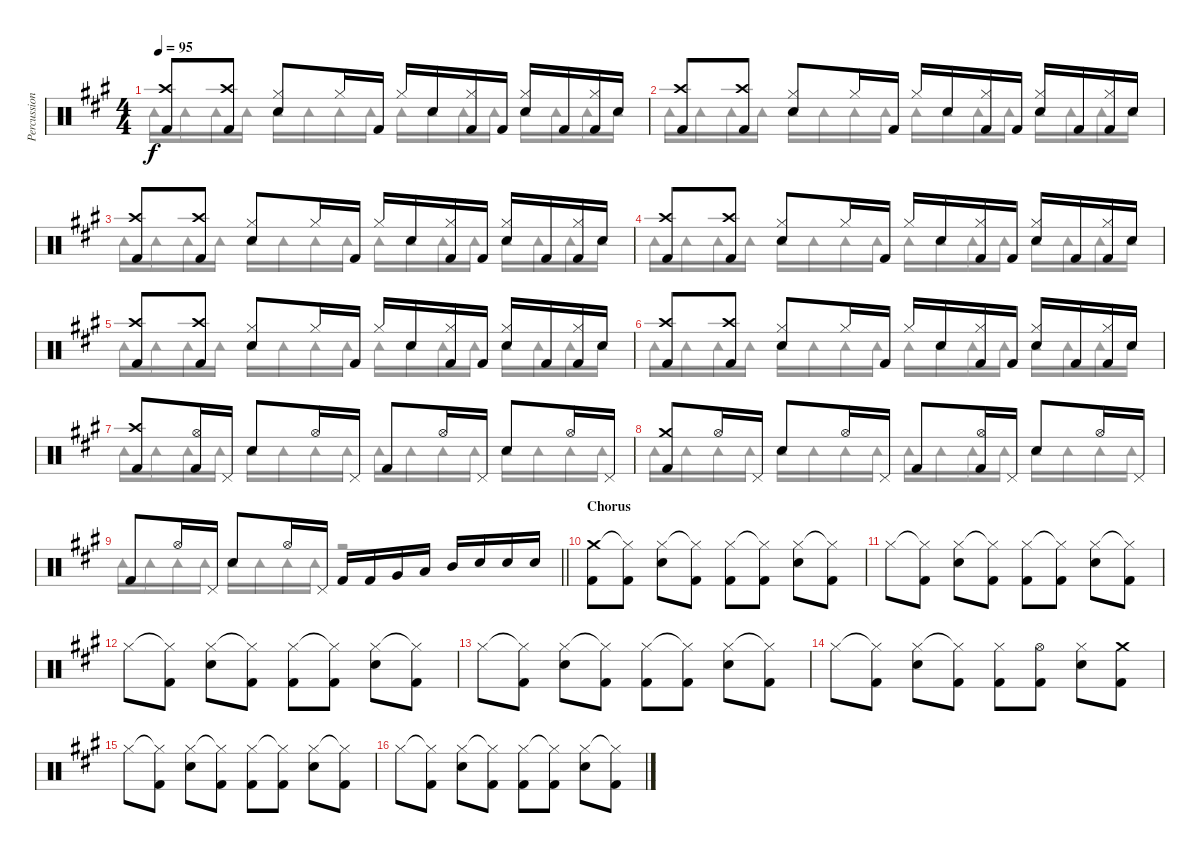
\track ("Percussion" "Percussion") {instrument percussion}
\staff {score}
\articulation defaults
\voice
\ts (4 4)
\tempo 95
\clef neutral
\ks a
("Crash high (hit)" "Kick (hit) 2").8{dy f} ("Crash high (hit)" "Kick (hit) 2").8 ("Hi-Hat (closed)" "Electric Snare (hit)").8 "Hi-Hat (closed)".16 "Kick (hit) 2".16 "Hi-Hat (closed)".16 "Electric Snare (hit)".16 ("Hi-Hat (closed)" "Kick (hit) 2").16 "Kick (hit) 2".16 ("Hi-Hat (closed)" "Electric Snare (hit)").16 "Kick (hit) 2".16 ("Hi-Hat (closed)" "Kick (hit) 2").16 "Electric Snare (hit)".16 |
("Crash high (hit)" "Kick (hit) 2").8 ("Crash high (hit)" "Kick (hit) 2").8 ("Hi-Hat (closed)" "Electric Snare (hit)").8 "Hi-Hat (closed)".16 "Kick (hit) 2".16 "Hi-Hat (closed)".16 "Electric Snare (hit)".16 ("Hi-Hat (closed)" "Kick (hit) 2").16 "Kick (hit) 2".16 ("Hi-Hat (closed)" "Electric Snare (hit)").16 "Kick (hit) 2".16 ("Hi-Hat (closed)" "Kick (hit) 2").16 "Electric Snare (hit)".16 |
("Crash high (hit)" "Kick (hit) 2").8 ("Crash high (hit)" "Kick (hit) 2").8 ("Hi-Hat (closed)" "Electric Snare (hit)").8 "Hi-Hat (closed)".16 "Kick (hit) 2".16 "Hi-Hat (closed)".16 "Electric Snare (hit)".16 ("Hi-Hat (closed)" "Kick (hit) 2").16 "Kick (hit) 2".16 ("Hi-Hat (closed)" "Electric Snare (hit)").16 "Kick (hit) 2".16 ("Hi-Hat (closed)" "Kick (hit) 2").16 "Electric Snare (hit)".16 |
("Crash high (hit)" "Kick (hit) 2").8 ("Crash high (hit)" "Kick (hit) 2").8 ("Hi-Hat (closed)" "Electric Snare (hit)").8 "Hi-Hat (closed)".16 "Kick (hit) 2".16 "Hi-Hat (closed)".16 "Electric Snare (hit)".16 ("Hi-Hat (closed)" "Kick (hit) 2").16 "Kick (hit) 2".16 ("Hi-Hat (closed)" "Electric Snare (hit)").16 "Kick (hit) 2".16 ("Hi-Hat (closed)" "Kick (hit) 2").16 "Electric Snare (hit)".16 |
("Crash high (hit)" "Kick (hit) 2").8 ("Crash high (hit)" "Kick (hit) 2").8 ("Hi-Hat (closed)" "Electric Snare (hit)").8 "Hi-Hat (closed)".16 "Kick (hit) 2".16 "Hi-Hat (closed)".16 "Electric Snare (hit)".16 ("Hi-Hat (closed)" "Kick (hit) 2").16 "Kick (hit) 2".16 ("Hi-Hat (closed)" "Electric Snare (hit)").16 "Kick (hit) 2".16 ("Hi-Hat (closed)" "Kick (hit) 2").16 "Electric Snare (hit)".16 |
("Crash high (hit)" "Kick (hit) 2").8 ("Crash high (hit)" "Kick (hit) 2").8 ("Hi-Hat (closed)" "Electric Snare (hit)").8 "Hi-Hat (closed)".16 "Kick (hit) 2".16 "Hi-Hat (closed)".16 "Electric Snare (hit)".16 ("Hi-Hat (closed)" "Kick (hit) 2").16 "Kick (hit) 2".16 ("Hi-Hat (closed)" "Electric Snare (hit)").16 "Kick (hit) 2".16 ("Hi-Hat (closed)" "Kick (hit) 2").16 "Electric Snare (hit)".16 |
("Crash high (hit)" "Kick (hit) 2").8 ("Hi-Hat (open)" "Kick (hit) 2").16 "Pedal Hi-Hat (hit)".16 "Electric Snare (hit)".8 "Hi-Hat (open)".16 "Pedal Hi-Hat (hit)".16 "Kick (hit) 2".8 "Hi-Hat (open)".16 "Pedal Hi-Hat (hit)".16 "Electric Snare (hit)".8 "Hi-Hat (open)".16 "Pedal Hi-Hat (hit)".16 |
("Crash medium (hit)" "Kick (hit) 2").8 "Hi-Hat (open)".16 "Pedal Hi-Hat (hit)".16 "Electric Snare (hit)".8 "Hi-Hat (open)".16 "Pedal Hi-Hat (hit)".16 "Kick (hit) 2".8 ("Hi-Hat (open)" "Kick (hit) 2").16 "Pedal Hi-Hat (hit)".16 "Electric Snare (hit)".8 "Hi-Hat (open)".16 "Pedal Hi-Hat (hit)".16 |
\barLineRight lightlight "Kick (hit) 2".8 "Hi-Hat (open)".16 "Pedal Hi-Hat (hit)".16 "Electric Snare (hit)".8 "Hi-Hat (open)".16 "Pedal Hi-Hat (hit)".16 "Kick (hit) 2".16 "Kick (hit) 2".16 "Very Low Tom (hit)".16 "Low Tom (hit)".16 "Mid Tom (hit)".16 "Electric Snare (hit)".16 "Electric Snare (hit)".16 "Electric Snare (hit)".16
|
\section ("" "Chorus")
("Crash medium (hit)" "Kick (hit) 2").8 ("Hi-Hat (closed)"{t} "Kick (hit) 2").8 ("Hi-Hat (closed)" "Electric Snare (hit)").8 ("Hi-Hat (closed)"{t} "Kick (hit) 2").8 ("Hi-Hat (closed)" "Kick (hit) 2").8 ("Hi-Hat (closed)"{t} "Kick (hit) 2").8 ("Hi-Hat (closed)" "Electric Snare (hit)").8 ("Hi-Hat (closed)"{t} "Kick (hit) 2").8 |
"Hi-Hat (closed)".8 ("Hi-Hat (closed)"{t} "Kick (hit) 2").8 ("Hi-Hat (closed)" "Electric Snare (hit)").8 ("Hi-Hat (closed)"{t} "Kick (hit) 2").8 ("Hi-Hat (closed)" "Kick (hit) 2").8 ("Hi-Hat (closed)"{t} "Kick (hit) 2").8 ("Hi-Hat (closed)" "Electric Snare (hit)").8 ("Hi-Hat (closed)"{t} "Kick (hit) 2").8 |
"Hi-Hat (closed)".8 ("Hi-Hat (closed)"{t} "Kick (hit) 2").8 ("Hi-Hat (closed)" "Electric Snare (hit)").8 ("Hi-Hat (closed)"{t} "Kick (hit) 2").8 ("Hi-Hat (closed)" "Kick (hit) 2").8 ("Hi-Hat (closed)"{t} "Kick (hit) 2").8 ("Hi-Hat (closed)" "Electric Snare (hit)").8 ("Hi-Hat (closed)"{t} "Kick (hit) 2").8 |
"Hi-Hat (closed)".8 ("Hi-Hat (closed)"{t} "Kick (hit) 2").8 ("Hi-Hat (closed)" "Electric Snare (hit)").8 ("Hi-Hat (closed)"{t} "Kick (hit) 2").8 ("Hi-Hat (closed)" "Kick (hit) 2").8 ("Hi-Hat (closed)"{t} "Kick (hit) 2").8 ("Hi-Hat (closed)" "Electric Snare (hit)").8 ("Hi-Hat (closed)"{t} "Kick (hit) 2").8 |
"Hi-Hat (closed)".8 ("Hi-Hat (closed)"{t} "Kick (hit) 2").8 ("Hi-Hat (closed)" "Electric Snare (hit)").8 ("Hi-Hat (closed)"{t} "Kick (hit) 2").8 ("Hi-Hat (closed)" "Kick (hit) 2").8 ("Hi-Hat (open)" "Kick (hit) 2").8 ("Hi-Hat (closed)" "Electric Snare (hit)").8 ("Crash medium (hit)" "Kick (hit) 2").8 |
"Hi-Hat (closed)".8 ("Hi-Hat (closed)"{t} "Kick (hit) 2").8 ("Hi-Hat (closed)" "Electric Snare (hit)").8 ("Hi-Hat (closed)"{t} "Kick (hit) 2").8 ("Hi-Hat (closed)" "Kick (hit) 2").8 ("Hi-Hat (closed)"{t} "Kick (hit) 2").8 ("Hi-Hat (closed)" "Electric Snare (hit)").8 ("Hi-Hat (closed)"{t} "Kick (hit) 2").8 |
"Hi-Hat (closed)".8 ("Hi-Hat (closed)"{t} "Kick (hit) 2").8 ("Hi-Hat (closed)" "Electric Snare (hit)").8 ("Hi-Hat (closed)"{t} "Kick (hit) 2").8 ("Hi-Hat (closed)" "Kick (hit) 2").8 ("Hi-Hat (closed)"{t} "Kick (hit) 2").8 ("Hi-Hat (closed)" "Electric Snare (hit)").8 ("Hi-Hat (closed)"{t} "Kick (hit) 2").8
\voice
\clef neutral
\ottava regular
\simile none
\ks a "Tambourine (hit)".16{dy f} "Tambourine (hit)".16 "Tambourine (hit)".16 "Tambourine (hit)".16 "Tambourine (hit)".16 "Tambourine (hit)".16 "Tambourine (hit)".16 "Tambourine (hit)".16 "Tambourine (hit)".16 "Tambourine (hit)".16 "Tambourine (hit)".16 "Tambourine (hit)".16 "Tambourine (hit)".16 "Tambourine (hit)".16 "Tambourine (hit)".16 "Tambourine (hit)".16
|
"Tambourine (hit)".16 "Tambourine (hit)".16 "Tambourine (hit)".16 "Tambourine (hit)".16 "Tambourine (hit)".16 "Tambourine (hit)".16 "Tambourine (hit)".16 "Tambourine (hit)".16 "Tambourine (hit)".16 "Tambourine (hit)".16 "Tambourine (hit)".16 "Tambourine (hit)".16 "Tambourine (hit)".16 "Tambourine (hit)".16 "Tambourine (hit)".16 "Tambourine (hit)".16 |
"Tambourine (hit)".16 "Tambourine (hit)".16 "Tambourine (hit)".16 "Tambourine (hit)".16 "Tambourine (hit)".16 "Tambourine (hit)".16 "Tambourine (hit)".16 "Tambourine (hit)".16 "Tambourine (hit)".16 "Tambourine (hit)".16 "Tambourine (hit)".16 "Tambourine (hit)".16 "Tambourine (hit)".16 "Tambourine (hit)".16 "Tambourine (hit)".16 "Tambourine (hit)".16 |
"Tambourine (hit)".16 "Tambourine (hit)".16 "Tambourine (hit)".16 "Tambourine (hit)".16 "Tambourine (hit)".16 "Tambourine (hit)".16 "Tambourine (hit)".16 "Tambourine (hit)".16 "Tambourine (hit)".16 "Tambourine (hit)".16 "Tambourine (hit)".16 "Tambourine (hit)".16 "Tambourine (hit)".16 "Tambourine (hit)".16 "Tambourine (hit)".16 "Tambourine (hit)".16 |
"Tambourine (hit)".16 "Tambourine (hit)".16 "Tambourine (hit)".16 "Tambourine (hit)".16 "Tambourine (hit)".16 "Tambourine (hit)".16 "Tambourine (hit)".16 "Tambourine (hit)".16 "Tambourine (hit)".16 "Tambourine (hit)".16 "Tambourine (hit)".16 "Tambourine (hit)".16 "Tambourine (hit)".16 "Tambourine (hit)".16 "Tambourine (hit)".16 "Tambourine (hit)".16 |
"Tambourine (hit)".16 "Tambourine (hit)".16 "Tambourine (hit)".16 "Tambourine (hit)".16 "Tambourine (hit)".16 "Tambourine (hit)".16 "Tambourine (hit)".16 "Tambourine (hit)".16 "Tambourine (hit)".16 "Tambourine (hit)".16 "Tambourine (hit)".16 "Tambourine (hit)".16 "Tambourine (hit)".16 "Tambourine (hit)".16 "Tambourine (hit)".16 "Tambourine (hit)".16 |
"Tambourine (hit)".16 "Tambourine (hit)".16 "Tambourine (hit)".16 "Tambourine (hit)".16 "Tambourine (hit)".16 "Tambourine (hit)".16 "Tambourine (hit)".16 "Tambourine (hit)".16 "Tambourine (hit)".16 "Tambourine (hit)".16 "Tambourine (hit)".16 "Tambourine (hit)".16 "Tambourine (hit)".16 "Tambourine (hit)".16 "Tambourine (hit)".16 "Tambourine (hit)".16 |
"Tambourine (hit)".16 "Tambourine (hit)".16 "Tambourine (hit)".16 "Tambourine (hit)".16 "Tambourine (hit)".16 "Tambourine (hit)".16 "Tambourine (hit)".16 "Tambourine (hit)".16 "Tambourine (hit)".16 "Tambourine (hit)".16 "Tambourine (hit)".16 "Tambourine (hit)".16 "Tambourine (hit)".16 "Tambourine (hit)".16 "Tambourine (hit)".16 "Tambourine (hit)".16 |
\barLineRight lightlight "Tambourine (hit)".16 "Tambourine (hit)".16 "Tambourine (hit)".16 "Tambourine (hit)".16 "Tambourine (hit)".16 "Tambourine (hit)".16 "Tambourine (hit)".16 "Tambourine (hit)".16
r.2 |
|
|
|
|
|
|
